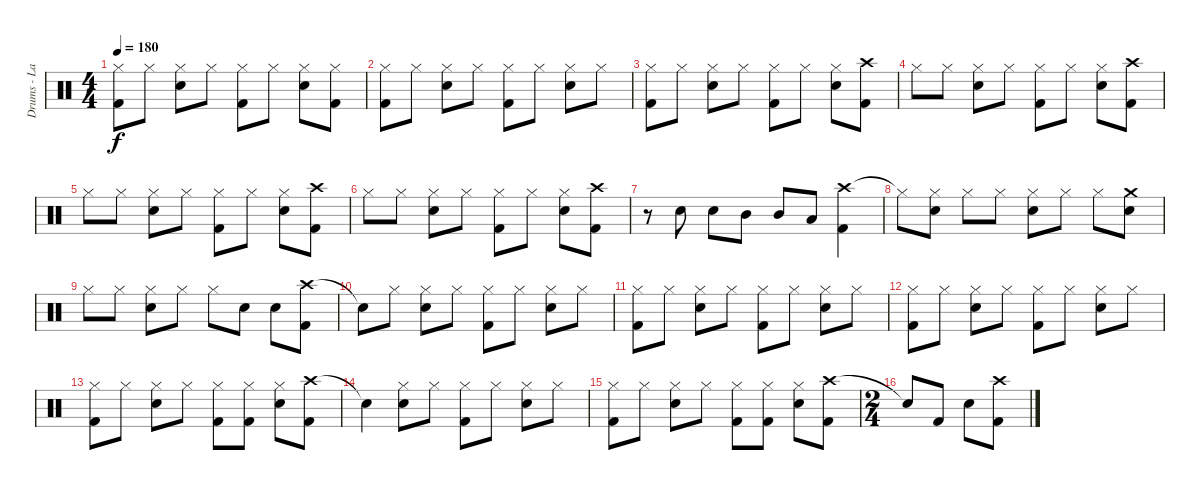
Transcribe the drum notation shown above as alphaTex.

\track ("Drums - Lars" "Drums - La") {instrument percussion}
\staff {score}
\articulation defaults
\ts (4 4)
\tempo 180
\clef neutral
\ks c
("Hi-Hat (closed)" "Kick (hit) 2").8{dy f} "Hi-Hat (closed)".8 ("Hi-Hat (closed)" "Snare (hit) 2").8 "Hi-Hat (closed)".8 ("Hi-Hat (closed)" "Kick (hit) 2").8 "Hi-Hat (closed)".8 ("Hi-Hat (closed)" "Snare (hit) 2").8 ("Hi-Hat (closed)" "Kick (hit) 2").8 |
("Hi-Hat (closed)" "Kick (hit) 2").8 "Hi-Hat (closed)".8 ("Hi-Hat (closed)" "Snare (hit) 2").8 "Hi-Hat (closed)".8 ("Hi-Hat (closed)" "Kick (hit) 2").8 "Hi-Hat (closed)".8 ("Hi-Hat (closed)" "Snare (hit) 2").8 "Hi-Hat (closed)".8 |
("Hi-Hat (closed)" "Kick (hit) 2").8 "Hi-Hat (closed)".8 ("Hi-Hat (closed)" "Snare (hit) 2").8 "Hi-Hat (closed)".8 ("Hi-Hat (closed)" "Kick (hit) 2").8 "Hi-Hat (closed)".8 ("Hi-Hat (closed)" "Snare (hit) 2").8 ("Crash high (hit)" "Kick (hit) 2").8 |
"Hi-Hat (closed)".8 "Hi-Hat (closed)".8 ("Hi-Hat (closed)" "Snare (hit) 2").8 "Hi-Hat (closed)".8 ("Hi-Hat (closed)" "Kick (hit) 2").8 "Hi-Hat (closed)".8 ("Hi-Hat (closed)" "Snare (hit) 2").8 ("Crash high (hit)" "Kick (hit) 2").8 |
"Hi-Hat (closed)".8 "Hi-Hat (closed)".8 ("Hi-Hat (closed)" "Snare (hit) 2").8 "Hi-Hat (closed)".8 ("Hi-Hat (closed)" "Kick (hit) 2").8 "Hi-Hat (closed)".8 ("Hi-Hat (closed)" "Snare (hit) 2").8 ("Crash high (hit)" "Kick (hit) 2").8 |
"Hi-Hat (closed)".8 "Hi-Hat (closed)".8 ("Hi-Hat (closed)" "Snare (hit) 2").8 "Hi-Hat (closed)".8 ("Hi-Hat (closed)" "Kick (hit) 2").8 "Hi-Hat (closed)".8 ("Hi-Hat (closed)" "Snare (hit) 2").8 ("Crash high (hit)" "Kick (hit) 2").8 |
r.8 "Snare (hit) 2".8 "Snare (hit) 2".8 "Mid Tom (hit)".8 "Mid Tom (hit)".8 "Low Tom (hit)".8 ("Crash high (hit)" "Kick (hit) 2").4 |
"Hi-Hat (closed)"{t}.8 ("Hi-Hat (closed)" "Snare (hit) 2").8 "Hi-Hat (closed)".8 "Hi-Hat (closed)".8 ("Hi-Hat (closed)" "Snare (hit) 2").8 "Hi-Hat (closed)".8 "Hi-Hat (closed)".8 ("Crash medium (hit)" "Snare (hit) 2").8 |
"Hi-Hat (closed)".8 "Hi-Hat (closed)".8 ("Hi-Hat (closed)" "Snare (hit) 2").8 "Hi-Hat (closed)".8 "Hi-Hat (closed)".8 "Snare (hit) 2".8 "Snare (hit) 2".8 ("Crash high (hit)" "Kick (hit) 2").8 |
"Snare (hit)"{t}.8 "Hi-Hat (closed)".8 ("Hi-Hat (closed)" "Snare (hit) 2").8 "Hi-Hat (closed)".8 ("Hi-Hat (closed)" "Kick (hit) 2").8 "Hi-Hat (closed)".8 ("Hi-Hat (closed)" "Snare (hit) 2").8 "Hi-Hat (closed)".8 |
("Hi-Hat (closed)" "Kick (hit) 2").8 "Hi-Hat (closed)".8 ("Hi-Hat (closed)" "Snare (hit) 2").8 "Hi-Hat (closed)".8 ("Hi-Hat (closed)" "Kick (hit) 2").8 "Hi-Hat (closed)".8 ("Hi-Hat (closed)" "Snare (hit) 2").8 "Hi-Hat (closed)".8 |
("Hi-Hat (closed)" "Kick (hit) 2").8 "Hi-Hat (closed)".8 ("Hi-Hat (closed)" "Snare (hit) 2").8 "Hi-Hat (closed)".8 ("Hi-Hat (closed)" "Kick (hit) 2").8 "Hi-Hat (closed)".8 ("Hi-Hat (closed)" "Snare (hit) 2").8 "Hi-Hat (closed)".8 |
("Hi-Hat (closed)" "Kick (hit) 2").8 "Hi-Hat (closed)".8 ("Hi-Hat (closed)" "Snare (hit) 2").8 "Hi-Hat (closed)".8 ("Hi-Hat (closed)" "Kick (hit) 2").8 ("Hi-Hat (closed)" "Kick (hit) 2").8 ("Hi-Hat (closed)" "Snare (hit) 2").8 ("Crash high (hit)" "Kick (hit) 2").8 |
"Snare (hit)"{t}.4 ("Hi-Hat (closed)" "Snare (hit) 2").8 "Hi-Hat (closed)".8 ("Hi-Hat (closed)" "Kick (hit) 2").8 "Hi-Hat (closed)".8 ("Hi-Hat (closed)" "Snare (hit) 2").8 "Hi-Hat (closed)".8 |
("Hi-Hat (closed)" "Kick (hit) 2").8 "Hi-Hat (closed)".8 ("Hi-Hat (closed)" "Snare (hit) 2").8 "Hi-Hat (closed)".8 ("Hi-Hat (closed)" "Kick (hit) 2").8 ("Hi-Hat (closed)" "Kick (hit) 2").8 ("Hi-Hat (closed)" "Snare (hit) 2").8 ("Crash high (hit)" "Kick (hit) 2").8 |
\ts (2 4)
"Snare (hit)"{t}.8 "Kick (hit) 2".8 "Snare (hit) 2".8 ("Crash high (hit)" "Kick (hit) 2").8
